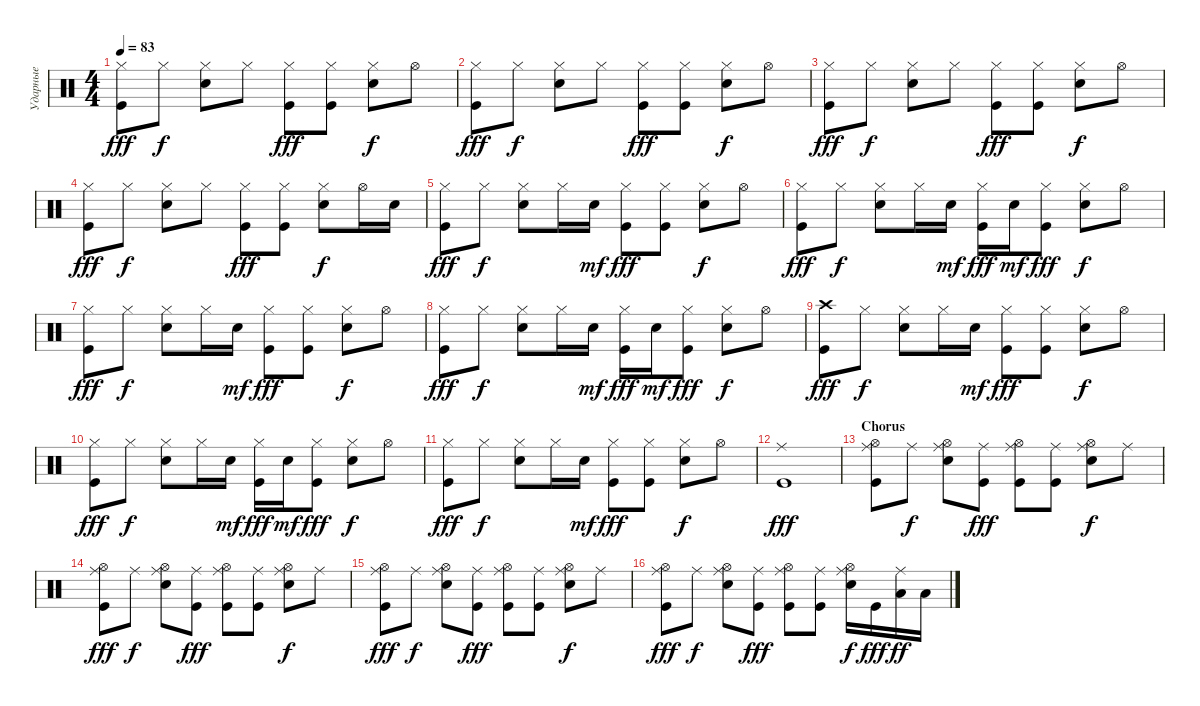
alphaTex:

\track ("Ударные" "Ударные") {instrument percussion}
\staff {score}
\articulation defaults
\ts (4 4)
\tempo 83
\clef neutral
\ks c
("Kick (hit)" "Hi-Hat (closed)").8{dy fff} "Hi-Hat (closed)".8{dy f} ("Electric Snare (hit)" "Hi-Hat (closed)").8 "Hi-Hat (closed)".8 ("Kick (hit)" "Hi-Hat (closed)").8{dy fff} ("Kick (hit)" "Hi-Hat (closed)").8 ("Electric Snare (hit)" "Hi-Hat (closed)").8{dy f} "Hi-Hat (open)".8 |
("Kick (hit)" "Hi-Hat (closed)").8{dy fff} "Hi-Hat (closed)".8{dy f} ("Electric Snare (hit)" "Hi-Hat (closed)").8 "Hi-Hat (closed)".8 ("Kick (hit)" "Hi-Hat (closed)").8{dy fff} ("Kick (hit)" "Hi-Hat (closed)").8 ("Electric Snare (hit)" "Hi-Hat (closed)").8{dy f} "Hi-Hat (open)".8 |
("Kick (hit)" "Hi-Hat (closed)").8{dy fff} "Hi-Hat (closed)".8{dy f} ("Electric Snare (hit)" "Hi-Hat (closed)").8 "Hi-Hat (closed)".8 ("Kick (hit)" "Hi-Hat (closed)").8{dy fff} ("Kick (hit)" "Hi-Hat (closed)").8 ("Electric Snare (hit)" "Hi-Hat (closed)").8{dy f} "Hi-Hat (open)".8 |
("Kick (hit)" "Hi-Hat (closed)").8{dy fff} "Hi-Hat (closed)".8{dy f} ("Electric Snare (hit)" "Hi-Hat (closed)").8 "Hi-Hat (closed)".8 ("Kick (hit)" "Hi-Hat (closed)").8{dy fff} ("Kick (hit)" "Hi-Hat (closed)").8 ("Electric Snare (hit)" "Hi-Hat (closed)").8{dy f} "Hi-Hat (open)".16 "Electric Snare (hit)".16 |
("Kick (hit)" "Hi-Hat (closed)").8{dy fff} "Hi-Hat (closed)".8{dy f} ("Electric Snare (hit)" "Hi-Hat (closed)").8 "Hi-Hat (closed)".16 "Electric Snare (hit)".16{dy mf} ("Kick (hit)" "Hi-Hat (closed)").8{dy fff} ("Kick (hit)" "Hi-Hat (closed)").8 ("Electric Snare (hit)" "Hi-Hat (closed)").8{dy f} "Hi-Hat (open)".8 |
("Kick (hit)" "Hi-Hat (closed)").8{dy fff} "Hi-Hat (closed)".8{dy f} ("Electric Snare (hit)" "Hi-Hat (closed)").8 "Hi-Hat (closed)".16 "Electric Snare (hit)".16{dy mf} ("Kick (hit)" "Hi-Hat (closed)").16{dy fff} "Electric Snare (hit)".16{dy mf} ("Kick (hit)" "Hi-Hat (closed)").8{dy fff} ("Electric Snare (hit)" "Hi-Hat (closed)").8{dy f} "Hi-Hat (open)".8 |
("Kick (hit)" "Hi-Hat (closed)").8{dy fff} "Hi-Hat (closed)".8{dy f} ("Electric Snare (hit)" "Hi-Hat (closed)").8 "Hi-Hat (closed)".16 "Electric Snare (hit)".16{dy mf} ("Kick (hit)" "Hi-Hat (closed)").8{dy fff} ("Kick (hit)" "Hi-Hat (closed)").8 ("Electric Snare (hit)" "Hi-Hat (closed)").8{dy f} "Hi-Hat (open)".8 |
("Kick (hit)" "Hi-Hat (closed)").8{dy fff} "Hi-Hat (closed)".8{dy f} ("Electric Snare (hit)" "Hi-Hat (closed)").8 "Hi-Hat (closed)".16 "Electric Snare (hit)".16{dy mf} ("Kick (hit)" "Hi-Hat (closed)").16{dy fff} "Electric Snare (hit)".16{dy mf} ("Kick (hit)" "Hi-Hat (closed)").8{dy fff} ("Electric Snare (hit)" "Hi-Hat (closed)").8{dy f} "Hi-Hat (open)".8 |
("Kick (hit)" "Crash high (hit)").8{dy fff} "Hi-Hat (closed)".8{dy f} ("Electric Snare (hit)" "Hi-Hat (closed)").8 "Hi-Hat (closed)".16 "Electric Snare (hit)".16{dy mf} ("Kick (hit)" "Hi-Hat (closed)").8{dy fff} ("Kick (hit)" "Hi-Hat (closed)").8 ("Electric Snare (hit)" "Hi-Hat (closed)").8{dy f} "Hi-Hat (open)".8 |
("Kick (hit)" "Hi-Hat (closed)").8{dy fff} "Hi-Hat (closed)".8{dy f} ("Electric Snare (hit)" "Hi-Hat (closed)").8 "Hi-Hat (closed)".16 "Electric Snare (hit)".16{dy mf} ("Kick (hit)" "Hi-Hat (closed)").16{dy fff} "Electric Snare (hit)".16{dy mf} ("Kick (hit)" "Hi-Hat (closed)").8{dy fff} ("Electric Snare (hit)" "Hi-Hat (closed)").8{dy f} "Hi-Hat (open)".8 |
("Kick (hit)" "Hi-Hat (closed)").8{dy fff} "Hi-Hat (closed)".8{dy f} ("Electric Snare (hit)" "Hi-Hat (closed)").8 "Hi-Hat (closed)".16 "Electric Snare (hit)".16{dy mf} ("Kick (hit)" "Hi-Hat (closed)").8{dy fff} ("Kick (hit)" "Hi-Hat (closed)").8 ("Electric Snare (hit)" "Hi-Hat (closed)").8{dy f} "Hi-Hat (open)".8 |
("Kick (hit)" "Ride (middle)").1{dy fff} |
\section ("" "Chorus")
("Kick (hit)" "Hi-Hat (open)" "Ride (middle)").8 "Ride (middle)".8{dy f} ("Electric Snare (hit)" "Hi-Hat (open)" "Ride (middle)").8 ("Kick (hit)" "Ride (middle)").8{dy fff} ("Kick (hit)" "Hi-Hat (open)" "Ride (middle)").8 ("Kick (hit)" "Ride (middle)").8 ("Electric Snare (hit)" "Hi-Hat (open)" "Ride (middle)").8{dy f} "Ride (middle)".8 |
("Kick (hit)" "Hi-Hat (open)" "Ride (middle)").8{dy fff} "Ride (middle)".8{dy f} ("Electric Snare (hit)" "Hi-Hat (open)" "Ride (middle)").8 ("Kick (hit)" "Ride (middle)").8{dy fff} ("Kick (hit)" "Hi-Hat (open)" "Ride (middle)").8 ("Kick (hit)" "Ride (middle)").8 ("Electric Snare (hit)" "Hi-Hat (open)" "Ride (middle)").8{dy f} "Ride (middle)".8 |
("Kick (hit)" "Hi-Hat (open)" "Ride (middle)").8{dy fff} "Ride (middle)".8{dy f} ("Electric Snare (hit)" "Hi-Hat (open)" "Ride (middle)").8 ("Kick (hit)" "Ride (middle)").8{dy fff} ("Kick (hit)" "Hi-Hat (open)" "Ride (middle)").8 ("Kick (hit)" "Ride (middle)").8 ("Electric Snare (hit)" "Hi-Hat (open)" "Ride (middle)").8{dy f} "Ride (middle)".8 |
("Kick (hit)" "Hi-Hat (open)" "Ride (middle)").8{dy fff} "Ride (middle)".8{dy f} ("Electric Snare (hit)" "Hi-Hat (open)" "Ride (middle)").8 ("Kick (hit)" "Ride (middle)").8{dy fff} ("Kick (hit)" "Hi-Hat (open)" "Ride (middle)").8 ("Kick (hit)" "Ride (middle)").8 ("Electric Snare (hit)" "Hi-Hat (open)" "Ride (middle)").16{dy f} "Kick (hit)".16{dy fff} ("Low Tom (hit)" "Ride (middle)").16{dy ff} "Low Tom (hit)".16
